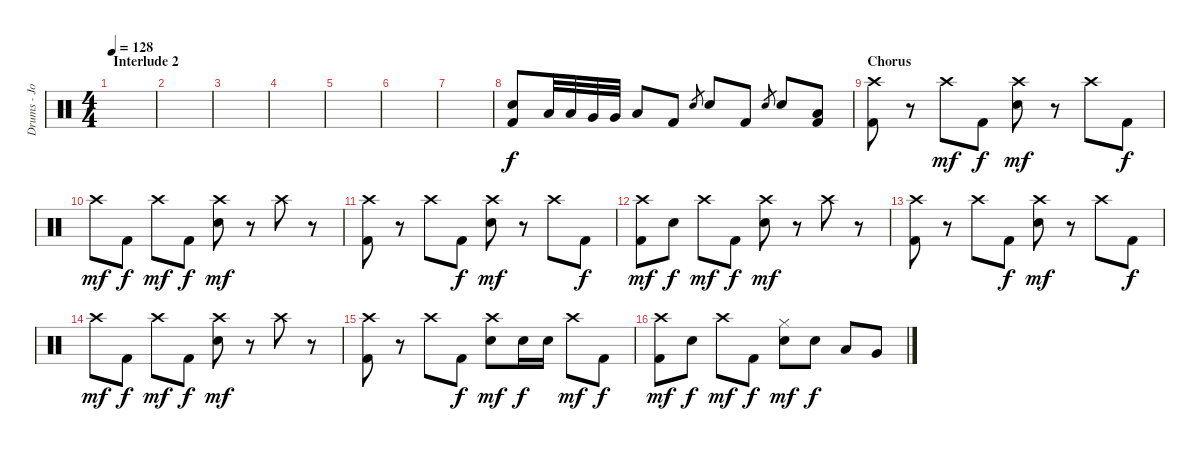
\track ("Drums - John Humphrey" "Drums - Jo") {instrument percussion}
\staff {score}
\articulation defaults
\ts (4 4)
\section ("" "Interlude 2")
\tempo 128
\clef neutral
\ks c
|
|
|
|
|
|
|
("Electric Snare (hit)" "Kick (hit) 2").8{dy f} "Low Tom (hit)".32 "Low Tom (hit)".32 "Very Low Tom (hit)".32 "Very Low Tom (hit)".32 "Low Floor Tom (hit)".8 "Kick (hit) 2".8 "Electric Snare (hit)".8{gr} "Electric Snare (hit)".8 "Kick (hit) 2".8 "Electric Snare (hit)".8{gr} "Electric Snare (hit)".8 ("Low Tom (hit)" "Kick (hit) 2").8 |
\section ("" "Chorus")
("Crash high (hit)" "Kick (hit) 2").8 r.8 "Crash high (hit)".8{dy mf} "Kick (hit) 2".8{dy f} ("Crash high (hit)" "Electric Snare (hit)").8{dy mf} r.8 "Crash high (hit)".8 "Kick (hit) 2".8{dy f} |
"Crash high (hit)".8{dy mf} "Kick (hit) 2".8{dy f} "Crash high (hit)".8{dy mf} "Kick (hit) 2".8{dy f} ("Crash high (hit)" "Electric Snare (hit)").8{dy mf} r.8 "Crash high (hit)".8 r.8 |
("Crash high (hit)" "Kick (hit) 2").8 r.8 "Crash high (hit)".8 "Kick (hit) 2".8{dy f} ("Crash high (hit)" "Electric Snare (hit)").8{dy mf} r.8 "Crash high (hit)".8 "Kick (hit) 2".8{dy f} |
("Crash high (hit)" "Kick (hit) 2").8{dy mf} "Electric Snare (hit)".8{dy f} "Crash high (hit)".8{dy mf} "Kick (hit) 2".8{dy f} ("Crash high (hit)" "Electric Snare (hit)").8{dy mf} r.8 "Crash high (hit)".8 r.8 |
("Crash high (hit)" "Kick (hit) 2").8 r.8 "Crash high (hit)".8 "Kick (hit) 2".8{dy f} ("Crash high (hit)" "Electric Snare (hit)").8{dy mf} r.8 "Crash high (hit)".8 "Kick (hit) 2".8{dy f} |
"Crash high (hit)".8{dy mf} "Kick (hit) 2".8{dy f} "Crash high (hit)".8{dy mf} "Kick (hit) 2".8{dy f} ("Crash high (hit)" "Electric Snare (hit)").8{dy mf} r.8 "Crash high (hit)".8 r.8 |
("Crash high (hit)" "Kick (hit) 2").8 r.8 "Crash high (hit)".8 "Kick (hit) 2".8{dy f} ("Crash high (hit)" "Electric Snare (hit)").8{dy mf} "Electric Snare (hit)".16{dy f} "Electric Snare (hit)".16 "Crash high (hit)".8{dy mf} "Kick (hit) 2".8{dy f} |
("Crash high (hit)" "Kick (hit) 2").8{dy mf} "Electric Snare (hit)".8{dy f} "Crash high (hit)".8{dy mf} "Kick (hit) 2".8{dy f} ("Hi-Hat (closed)" "Electric Snare (hit)").8{dy mf} "Electric Snare (hit)".8{dy f} "Low Tom (hit)".8 "Very Low Tom (hit)".8
